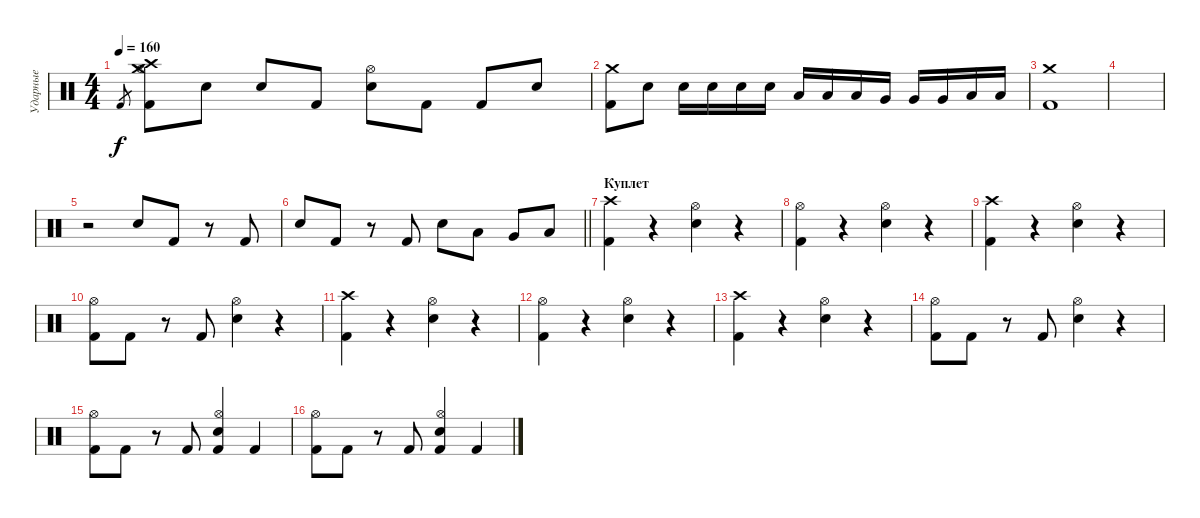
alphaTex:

\track ("Ударные" "Ударные") {instrument percussion}
\staff {score}
\articulation defaults
\ts (4 4)
\tempo 160
\clef neutral
\ks c "Kick (hit) 2".8{gr dy f}
("Kick (hit) 2" "Hi-Hat (open)" "Crash high (hit)" "Crash medium (hit)").8 "Snare (hit) 2".8 "Snare (hit) 2".8 "Kick (hit) 2".8 ("Snare (hit) 2" "Hi-Hat (open)").8 "Kick (hit) 2".8 "Kick (hit) 2".8 "Snare (hit) 2".8 |
("Kick (hit) 2" "Crash medium (hit)").8 "Snare (hit) 2".8 "Snare (hit) 2".16 "Snare (hit) 2".16 "Snare (hit) 2".16 "Snare (hit) 2".16 "Low Tom (hit)".16 "Low Tom (hit)".16 "Low Tom (hit)".16 "Very Low Tom (hit)".16 "Very Low Tom (hit)".16 "Very Low Tom (hit)".16 "Low Tom (hit)".16 "Low Tom (hit)".16 |
("Kick (hit) 2" "Crash medium (hit)").1 |
|
r.2 "Snare (hit) 2".8 "Kick (hit) 2".8 r.8 "Kick (hit) 2".8 |
\barLineRight lightlight "Snare (hit) 2".8 "Kick (hit) 2".8
r.8 "Kick (hit) 2".8 "Snare (hit) 2".8 "Low Tom (hit)".8 "Very Low Tom (hit)".8 "Low Floor Tom (hit)".8 |
\section ("" "Куплет")
("Kick (hit) 2" "Crash high (hit)").4 r.4 ("Snare (hit) 2" "Hi-Hat (open)").4 r.4 |
("Kick (hit) 2" "Hi-Hat (open)").4 r.4 ("Snare (hit) 2" "Hi-Hat (open)").4 r.4 |
("Kick (hit) 2" "Crash high (hit)").4 r.4 ("Snare (hit) 2" "Hi-Hat (open)").4 r.4 |
("Kick (hit) 2" "Hi-Hat (open)").8 "Kick (hit) 2".8 r.8 "Kick (hit) 2".8 ("Hi-Hat (open)" "Snare (hit) 2").4 r.4 |
("Kick (hit) 2" "Crash high (hit)").4 r.4 ("Snare (hit) 2" "Hi-Hat (open)").4 r.4 |
("Kick (hit) 2" "Hi-Hat (open)").4 r.4 ("Snare (hit) 2" "Hi-Hat (open)").4 r.4 |
("Kick (hit) 2" "Crash high (hit)").4 r.4 ("Snare (hit) 2" "Hi-Hat (open)").4 r.4 |
("Kick (hit) 2" "Hi-Hat (open)").8 "Kick (hit) 2".8 r.8 "Kick (hit) 2".8 ("Hi-Hat (open)" "Snare (hit) 2").4 r.4 |
("Kick (hit) 2" "Hi-Hat (open)").8 "Kick (hit) 2".8 r.8 "Kick (hit) 2".8 ("Hi-Hat (open)" "Snare (hit) 2" "Kick (hit) 2").4 "Kick (hit) 2".4 |
("Kick (hit) 2" "Hi-Hat (open)").8 "Kick (hit) 2".8 r.8 "Kick (hit) 2".8 ("Hi-Hat (open)" "Snare (hit) 2" "Kick (hit) 2").4 "Kick (hit) 2".4
